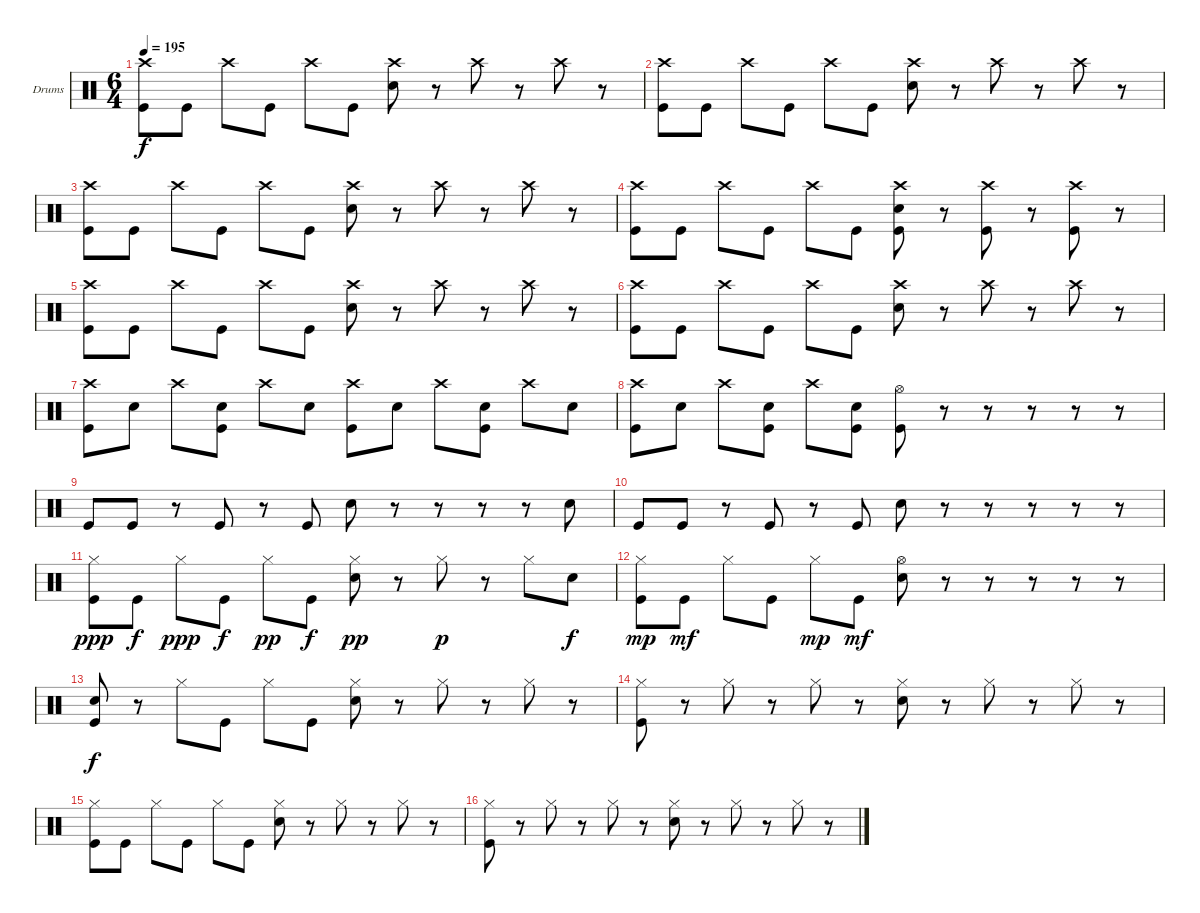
\bracketExtendMode groupsimilarinstruments
\firstSystemTrackNameOrientation horizontal
\otherSystemsTrackNameOrientation horizontal
\track ("Drumkit" "Drums") {instrument percussion}
\staff {score}
\articulation defaults
\ts (6 4)
\tempo 195
\clef neutral
\ks c
("Crash high (hit)" "Kick (hit)").8{dy f} "Kick (hit)".8 "Crash high (hit)".8 "Kick (hit)".8 "Crash high (hit)".8 "Kick (hit)".8 ("Crash high (hit)" "Snare (hit) 2").8 r.8 "Crash high (hit)".8 r.8 "Crash high (hit)".8 r.8 |
("Crash high (hit)" "Kick (hit)").8 "Kick (hit)".8 "Crash high (hit)".8 "Kick (hit)".8 "Crash high (hit)".8 "Kick (hit)".8 ("Crash high (hit)" "Snare (hit) 2").8 r.8 "Crash high (hit)".8 r.8 "Crash high (hit)".8 r.8 |
("Crash high (hit)" "Kick (hit)").8 "Kick (hit)".8 "Crash high (hit)".8 "Kick (hit)".8 "Crash high (hit)".8 "Kick (hit)".8 ("Crash high (hit)" "Snare (hit) 2").8 r.8 "Crash high (hit)".8 r.8 "Crash high (hit)".8 r.8 |
("Crash high (hit)" "Kick (hit)").8 "Kick (hit)".8 "Crash high (hit)".8 "Kick (hit)".8 "Crash high (hit)".8 "Kick (hit)".8 ("Crash high (hit)" "Snare (hit) 2" "Kick (hit)").8 r.8 ("Crash high (hit)" "Kick (hit)").8 r.8 ("Crash high (hit)" "Kick (hit)").8 r.8 |
("Crash high (hit)" "Kick (hit)").8 "Kick (hit)".8 "Crash high (hit)".8 "Kick (hit)".8 "Crash high (hit)".8 "Kick (hit)".8 ("Crash high (hit)" "Snare (hit) 2").8 r.8 "Crash high (hit)".8 r.8 "Crash high (hit)".8 r.8 |
("Crash high (hit)" "Kick (hit)").8 "Kick (hit)".8 "Crash high (hit)".8 "Kick (hit)".8 "Crash high (hit)".8 "Kick (hit)".8 ("Crash high (hit)" "Snare (hit) 2").8 r.8 "Crash high (hit)".8 r.8 "Crash high (hit)".8 r.8 |
("Crash high (hit)" "Kick (hit)").8 "Snare (hit) 2".8 "Crash high (hit)".8 ("Snare (hit) 2" "Kick (hit)").8 "Crash high (hit)".8 "Snare (hit) 2".8 ("Crash high (hit)" "Kick (hit)").8 "Snare (hit) 2".8 "Crash high (hit)".8 ("Snare (hit) 2" "Kick (hit)").8 "Crash high (hit)".8 "Snare (hit) 2".8 |
("Crash high (hit)" "Kick (hit)").8 "Snare (hit) 2".8 "Crash high (hit)".8 ("Snare (hit) 2" "Kick (hit)").8 "Crash high (hit)".8 ("Snare (hit) 2" "Kick (hit)").8 ("Hi-Hat (open)" "Kick (hit)").8 r.8 r.8 r.8 r.8 r.8 |
"Kick (hit)".8 "Kick (hit)".8 r.8 "Kick (hit)".8 r.8 "Kick (hit)".8 "Snare (hit) 2".8 r.8 r.8 r.8 r.8 "Snare (hit) 2".8 |
"Kick (hit)".8 "Kick (hit)".8 r.8 "Kick (hit)".8 r.8 "Kick (hit)".8 "Snare (hit) 2".8 r.8 r.8 r.8 r.8 r.8 |
("Hi-Hat (closed)" "Kick (hit)").8{dy ppp} "Kick (hit)".8{dy f} "Hi-Hat (closed)".8{dy ppp} "Kick (hit)".8{dy f} "Hi-Hat (closed)".8{dy pp} "Kick (hit)".8{dy f} ("Hi-Hat (closed)" "Snare (hit) 2").8{dy pp} r.8 "Hi-Hat (closed)".8{dy p} r.8 "Hi-Hat (closed)".8 "Snare (hit) 2".8{dy f} |
("Hi-Hat (closed)" "Kick (hit)").8{dy mp} "Kick (hit)".8{dy mf} "Hi-Hat (closed)".8 "Kick (hit)".8 "Hi-Hat (closed)".8{dy mp} "Kick (hit)".8{dy mf} ("Hi-Hat (open)" "Snare (hit) 2").8 r.8 r.8 r.8 r.8 r.8 |
("Snare (hit) 2" "Kick (hit)").8{dy f} r.8 "Hi-Hat (closed)".8 "Kick (hit)".8 "Hi-Hat (closed)".8 "Kick (hit)".8 ("Hi-Hat (closed)" "Snare (hit) 2").8 r.8 "Hi-Hat (closed)".8 r.8 "Hi-Hat (closed)".8 r.8 |
("Hi-Hat (closed)" "Kick (hit)").8 r.8 "Hi-Hat (closed)".8 r.8 "Hi-Hat (closed)".8 r.8 ("Hi-Hat (closed)" "Snare (hit) 2").8 r.8 "Hi-Hat (closed)".8 r.8 "Hi-Hat (closed)".8 r.8 |
("Hi-Hat (closed)" "Kick (hit)").8 "Kick (hit)".8 "Hi-Hat (closed)".8 "Kick (hit)".8 "Hi-Hat (closed)".8 "Kick (hit)".8 ("Hi-Hat (closed)" "Snare (hit) 2").8 r.8 "Hi-Hat (closed)".8 r.8 "Hi-Hat (closed)".8 r.8 |
("Hi-Hat (closed)" "Kick (hit)").8 r.8 "Hi-Hat (closed)".8 r.8 "Hi-Hat (closed)".8 r.8 ("Hi-Hat (closed)" "Snare (hit) 2").8 r.8 "Hi-Hat (closed)".8 r.8 "Hi-Hat (closed)".8 r.8
